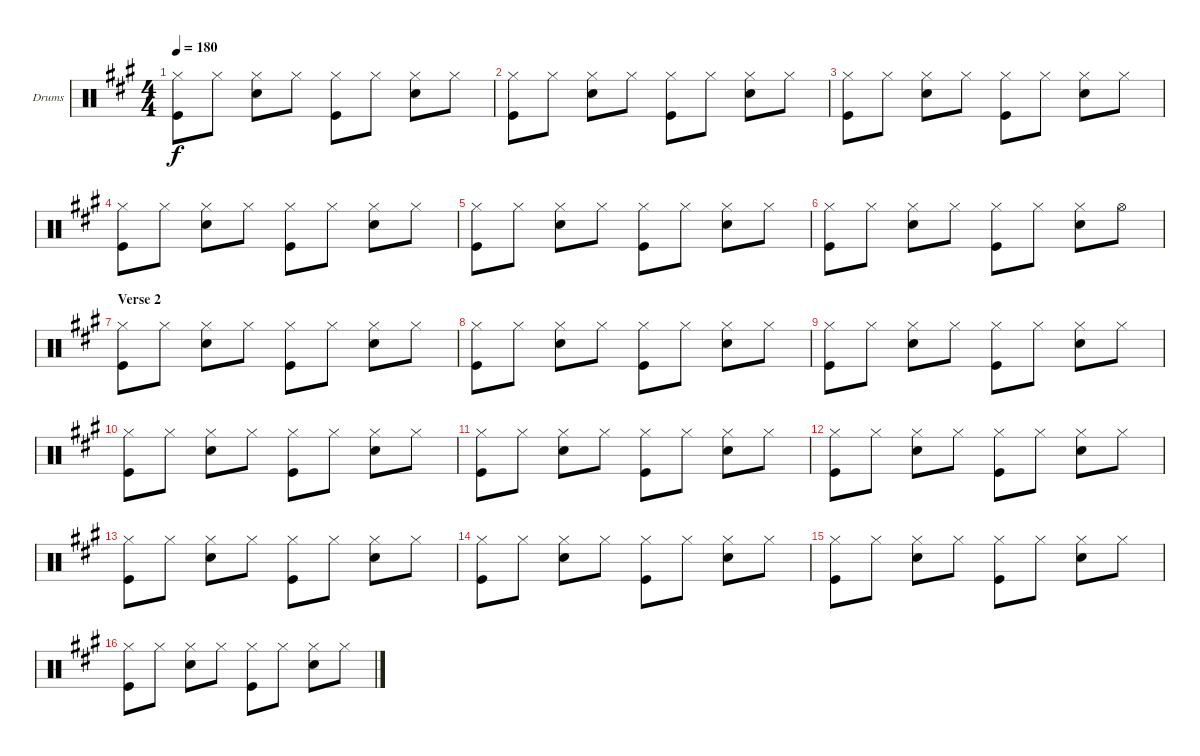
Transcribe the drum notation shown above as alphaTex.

\defaultSystemsLayout 4
\bracketExtendMode groupsimilarinstruments
\firstSystemTrackNameOrientation horizontal
\otherSystemsTrackNameOrientation horizontal
\track ("Drumkit" "Drums") {instrument percussion}
\staff {score}
\articulation defaults
\ts (4 4)
\tempo 180
\clef neutral
\ks f#minor
("Hi-Hat (closed)" "Kick (hit)").8{dy f} "Hi-Hat (closed)".8 ("Hi-Hat (closed)" "Snare (hit) 2").8 "Hi-Hat (closed)".8 ("Hi-Hat (closed)" "Kick (hit)").8 "Hi-Hat (closed)".8 ("Hi-Hat (closed)" "Snare (hit) 2").8 "Hi-Hat (closed)".8 |
("Hi-Hat (closed)" "Kick (hit)").8 "Hi-Hat (closed)".8 ("Hi-Hat (closed)" "Snare (hit) 2").8 "Hi-Hat (closed)".8 ("Hi-Hat (closed)" "Kick (hit)").8 "Hi-Hat (closed)".8 ("Hi-Hat (closed)" "Snare (hit) 2").8 "Hi-Hat (closed)".8 |
("Hi-Hat (closed)" "Kick (hit)").8 "Hi-Hat (closed)".8 ("Hi-Hat (closed)" "Snare (hit) 2").8 "Hi-Hat (closed)".8 ("Hi-Hat (closed)" "Kick (hit)").8 "Hi-Hat (closed)".8 ("Hi-Hat (closed)" "Snare (hit) 2").8 "Hi-Hat (closed)".8 |
("Hi-Hat (closed)" "Kick (hit)").8 "Hi-Hat (closed)".8 ("Hi-Hat (closed)" "Snare (hit) 2").8 "Hi-Hat (closed)".8 ("Hi-Hat (closed)" "Kick (hit)").8 "Hi-Hat (closed)".8 ("Hi-Hat (closed)" "Snare (hit) 2").8 "Hi-Hat (closed)".8 |
("Hi-Hat (closed)" "Kick (hit)").8 "Hi-Hat (closed)".8 ("Hi-Hat (closed)" "Snare (hit) 2").8 "Hi-Hat (closed)".8 ("Hi-Hat (closed)" "Kick (hit)").8 "Hi-Hat (closed)".8 ("Hi-Hat (closed)" "Snare (hit) 2").8 "Hi-Hat (closed)".8 |
("Hi-Hat (closed)" "Kick (hit)").8 "Hi-Hat (closed)".8 ("Hi-Hat (closed)" "Snare (hit) 2").8 "Hi-Hat (closed)".8 ("Hi-Hat (closed)" "Kick (hit)").8 "Hi-Hat (closed)".8 ("Hi-Hat (closed)" "Snare (hit) 2").8 "Hi-Hat (open)".8 |
\section ("" "Verse 2")
("Hi-Hat (closed)" "Kick (hit)").8 "Hi-Hat (closed)".8 ("Hi-Hat (closed)" "Snare (hit) 2").8 "Hi-Hat (closed)".8 ("Hi-Hat (closed)" "Kick (hit)").8 "Hi-Hat (closed)".8 ("Hi-Hat (closed)" "Snare (hit) 2").8 "Hi-Hat (closed)".8 |
("Hi-Hat (closed)" "Kick (hit)").8 "Hi-Hat (closed)".8 ("Hi-Hat (closed)" "Snare (hit) 2").8 "Hi-Hat (closed)".8 ("Hi-Hat (closed)" "Kick (hit)").8 "Hi-Hat (closed)".8 ("Hi-Hat (closed)" "Snare (hit) 2").8 "Hi-Hat (closed)".8 |
("Hi-Hat (closed)" "Kick (hit)").8 "Hi-Hat (closed)".8 ("Hi-Hat (closed)" "Snare (hit) 2").8 "Hi-Hat (closed)".8 ("Hi-Hat (closed)" "Kick (hit)").8 "Hi-Hat (closed)".8 ("Hi-Hat (closed)" "Snare (hit) 2").8 "Hi-Hat (closed)".8 |
("Hi-Hat (closed)" "Kick (hit)").8 "Hi-Hat (closed)".8 ("Hi-Hat (closed)" "Snare (hit) 2").8 "Hi-Hat (closed)".8 ("Hi-Hat (closed)" "Kick (hit)").8 "Hi-Hat (closed)".8 ("Hi-Hat (closed)" "Snare (hit) 2").8 "Hi-Hat (closed)".8 |
("Hi-Hat (closed)" "Kick (hit)").8 "Hi-Hat (closed)".8 ("Hi-Hat (closed)" "Snare (hit) 2").8 "Hi-Hat (closed)".8 ("Hi-Hat (closed)" "Kick (hit)").8 "Hi-Hat (closed)".8 ("Hi-Hat (closed)" "Snare (hit) 2").8 "Hi-Hat (closed)".8 |
("Hi-Hat (closed)" "Kick (hit)").8 "Hi-Hat (closed)".8 ("Hi-Hat (closed)" "Snare (hit) 2").8 "Hi-Hat (closed)".8 ("Hi-Hat (closed)" "Kick (hit)").8 "Hi-Hat (closed)".8 ("Hi-Hat (closed)" "Snare (hit) 2").8 "Hi-Hat (closed)".8 |
("Hi-Hat (closed)" "Kick (hit)").8 "Hi-Hat (closed)".8 ("Hi-Hat (closed)" "Snare (hit) 2").8 "Hi-Hat (closed)".8 ("Hi-Hat (closed)" "Kick (hit)").8 "Hi-Hat (closed)".8 ("Hi-Hat (closed)" "Snare (hit) 2").8 "Hi-Hat (closed)".8 |
("Hi-Hat (closed)" "Kick (hit)").8 "Hi-Hat (closed)".8 ("Hi-Hat (closed)" "Snare (hit) 2").8 "Hi-Hat (closed)".8 ("Hi-Hat (closed)" "Kick (hit)").8 "Hi-Hat (closed)".8 ("Hi-Hat (closed)" "Snare (hit) 2").8 "Hi-Hat (closed)".8 |
("Hi-Hat (closed)" "Kick (hit)").8 "Hi-Hat (closed)".8 ("Hi-Hat (closed)" "Snare (hit) 2").8 "Hi-Hat (closed)".8 ("Hi-Hat (closed)" "Kick (hit)").8 "Hi-Hat (closed)".8 ("Hi-Hat (closed)" "Snare (hit) 2").8 "Hi-Hat (closed)".8 |
("Hi-Hat (closed)" "Kick (hit)").8 "Hi-Hat (closed)".8 ("Hi-Hat (closed)" "Snare (hit) 2").8 "Hi-Hat (closed)".8 ("Hi-Hat (closed)" "Kick (hit)").8 "Hi-Hat (closed)".8 ("Hi-Hat (closed)" "Snare (hit) 2").8 "Hi-Hat (closed)".8
